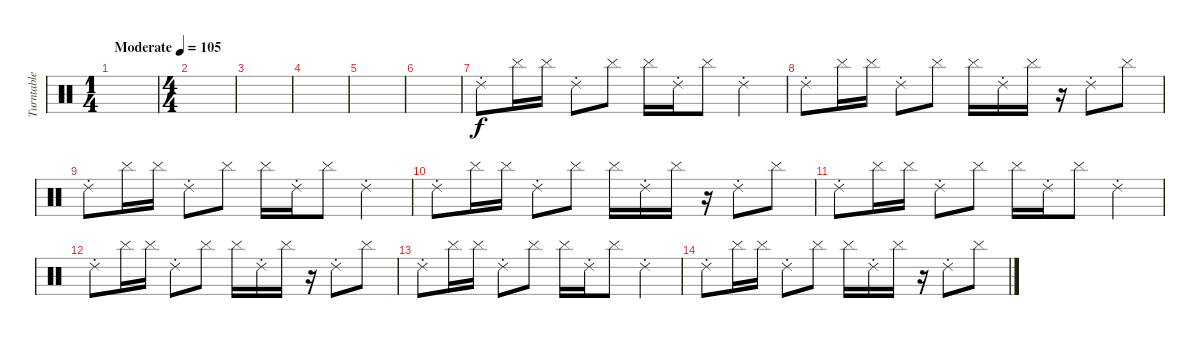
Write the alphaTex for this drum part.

\track ("Turntable" "Turntable") {instrument percussion}
\staff {score}
\articulation defaults
\ts (1 4)
\tempo (105 "Moderate")
\clef neutral
\ks c
|
\ts (4 4)
|
|
|
|
|
"Ride (choke) 2".8{volume 13 balance 7} "Cymbal (hit)".16 "Cymbal (hit)".16 "Ride (choke) 2".8 "Cymbal (hit)".8 "Cymbal (hit)".16 "Ride (choke) 2".16 "Cymbal (hit)".8 "Ride (choke) 2".4 |
"Ride (choke) 2".8 "Cymbal (hit)".16 "Cymbal (hit)".16 "Ride (choke) 2".8 "Cymbal (hit)".8 "Cymbal (hit)".16 "Ride (choke) 2".16 "Cymbal (hit)".16 r.16 "Ride (choke) 2".8 "Cymbal (hit)".8 |
"Ride (choke) 2".8 "Cymbal (hit)".16 "Cymbal (hit)".16 "Ride (choke) 2".8 "Cymbal (hit)".8 "Cymbal (hit)".16 "Ride (choke) 2".16 "Cymbal (hit)".8 "Ride (choke) 2".4 |
"Ride (choke) 2".8 "Cymbal (hit)".16 "Cymbal (hit)".16 "Ride (choke) 2".8 "Cymbal (hit)".8 "Cymbal (hit)".16 "Ride (choke) 2".16 "Cymbal (hit)".16 r.16 "Ride (choke) 2".8 "Cymbal (hit)".8 |
"Ride (choke) 2".8 "Cymbal (hit)".16 "Cymbal (hit)".16 "Ride (choke) 2".8 "Cymbal (hit)".8 "Cymbal (hit)".16 "Ride (choke) 2".16 "Cymbal (hit)".8 "Ride (choke) 2".4 |
"Ride (choke) 2".8 "Cymbal (hit)".16 "Cymbal (hit)".16 "Ride (choke) 2".8 "Cymbal (hit)".8 "Cymbal (hit)".16 "Ride (choke) 2".16 "Cymbal (hit)".16 r.16 "Ride (choke) 2".8 "Cymbal (hit)".8 |
"Ride (choke) 2".8 "Cymbal (hit)".16 "Cymbal (hit)".16 "Ride (choke) 2".8 "Cymbal (hit)".8 "Cymbal (hit)".16 "Ride (choke) 2".16 "Cymbal (hit)".8 "Ride (choke) 2".4 |
"Ride (choke) 2".8 "Cymbal (hit)".16 "Cymbal (hit)".16 "Ride (choke) 2".8 "Cymbal (hit)".8 "Cymbal (hit)".16 "Ride (choke) 2".16 "Cymbal (hit)".16 r.16 "Ride (choke) 2".8 "Cymbal (hit)".8
